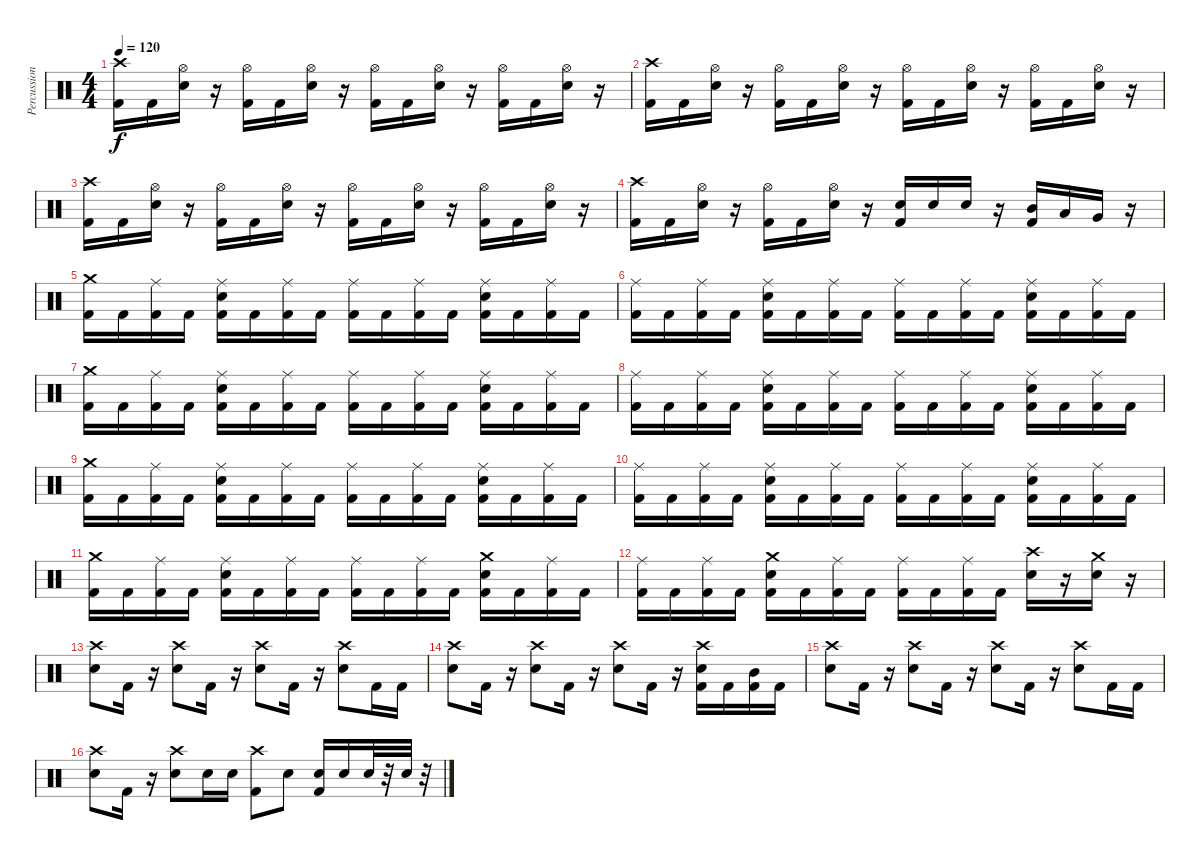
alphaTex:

\track ("Percussion" "Percussion") {instrument percussion}
\staff {score}
\articulation defaults
\ts (4 4)
\tempo 120
\clef neutral
\ks c
("Crash high (hit)" "Kick (hit) 2").16{dy f} "Kick (hit) 2".16 ("Hi-Hat (open)" "Snare (hit) 2").16 r.16 ("Hi-Hat (open)" "Kick (hit) 2").16 "Kick (hit) 2".16 ("Hi-Hat (open)" "Snare (hit) 2").16 r.16 ("Hi-Hat (open)" "Kick (hit) 2").16 "Kick (hit) 2".16 ("Hi-Hat (open)" "Snare (hit) 2").16 r.16 ("Hi-Hat (open)" "Kick (hit) 2").16 "Kick (hit) 2".16 ("Hi-Hat (open)" "Snare (hit) 2").16 r.16 |
("Crash high (hit)" "Kick (hit) 2").16 "Kick (hit) 2".16 ("Hi-Hat (open)" "Snare (hit) 2").16 r.16 ("Hi-Hat (open)" "Kick (hit) 2").16 "Kick (hit) 2".16 ("Hi-Hat (open)" "Snare (hit) 2").16 r.16 ("Hi-Hat (open)" "Kick (hit) 2").16 "Kick (hit) 2".16 ("Hi-Hat (open)" "Snare (hit) 2").16 r.16 ("Hi-Hat (open)" "Kick (hit) 2").16 "Kick (hit) 2".16 ("Hi-Hat (open)" "Snare (hit) 2").16 r.16 |
("Crash high (hit)" "Kick (hit) 2").16 "Kick (hit) 2".16 ("Hi-Hat (open)" "Snare (hit) 2").16 r.16 ("Hi-Hat (open)" "Kick (hit) 2").16 "Kick (hit) 2".16 ("Hi-Hat (open)" "Snare (hit) 2").16 r.16 ("Hi-Hat (open)" "Kick (hit) 2").16 "Kick (hit) 2".16 ("Hi-Hat (open)" "Snare (hit) 2").16 r.16 ("Hi-Hat (open)" "Kick (hit) 2").16 "Kick (hit) 2".16 ("Hi-Hat (open)" "Snare (hit) 2").16 r.16 |
("Crash high (hit)" "Kick (hit) 2").16 "Kick (hit) 2".16 ("Hi-Hat (open)" "Snare (hit) 2").16 r.16 ("Hi-Hat (open)" "Kick (hit) 2").16 "Kick (hit) 2".16 ("Hi-Hat (open)" "Snare (hit) 2").16 r.16 ("Kick (hit) 2" "Snare (hit) 2").16 "Snare (hit) 2".16 "Snare (hit) 2".16 r.16 ("Kick (hit) 2" "Mid Tom (hit)").16 "Low Tom (hit)".16 "Very Low Tom (hit)".16 r.16 |
("Crash medium (hit)" "Kick (hit) 2").16 "Kick (hit) 2".16 ("Ride (middle)" "Kick (hit) 2").16 "Kick (hit) 2".16 ("Ride (middle)" "Snare (hit) 2" "Kick (hit) 2").16 "Kick (hit) 2".16 ("Ride (middle)" "Kick (hit) 2").16 "Kick (hit) 2".16 ("Ride (middle)" "Kick (hit) 2").16 "Kick (hit) 2".16 ("Ride (middle)" "Kick (hit) 2").16 "Kick (hit) 2".16 ("Ride (middle)" "Snare (hit) 2" "Kick (hit) 2").16 "Kick (hit) 2".16 ("Ride (middle)" "Kick (hit) 2").16 "Kick (hit) 2".16 |
("Ride (middle)" "Kick (hit) 2").16 "Kick (hit) 2".16 ("Ride (middle)" "Kick (hit) 2").16 "Kick (hit) 2".16 ("Ride (middle)" "Snare (hit) 2" "Kick (hit) 2").16 "Kick (hit) 2".16 ("Ride (middle)" "Kick (hit) 2").16 "Kick (hit) 2".16 ("Ride (middle)" "Kick (hit) 2").16 "Kick (hit) 2".16 ("Ride (middle)" "Kick (hit) 2").16 "Kick (hit) 2".16 ("Ride (middle)" "Snare (hit) 2" "Kick (hit) 2").16 "Kick (hit) 2".16 ("Ride (middle)" "Kick (hit) 2").16 "Kick (hit) 2".16 |
("Crash medium (hit)" "Kick (hit) 2").16 "Kick (hit) 2".16 ("Ride (middle)" "Kick (hit) 2").16 "Kick (hit) 2".16 ("Ride (middle)" "Snare (hit) 2" "Kick (hit) 2").16 "Kick (hit) 2".16 ("Ride (middle)" "Kick (hit) 2").16 "Kick (hit) 2".16 ("Ride (middle)" "Kick (hit) 2").16 "Kick (hit) 2".16 ("Ride (middle)" "Kick (hit) 2").16 "Kick (hit) 2".16 ("Ride (middle)" "Snare (hit) 2" "Kick (hit) 2").16 "Kick (hit) 2".16 ("Ride (middle)" "Kick (hit) 2").16 "Kick (hit) 2".16 |
("Ride (middle)" "Kick (hit) 2").16 "Kick (hit) 2".16 ("Ride (middle)" "Kick (hit) 2").16 "Kick (hit) 2".16 ("Ride (middle)" "Snare (hit) 2" "Kick (hit) 2").16 "Kick (hit) 2".16 ("Ride (middle)" "Kick (hit) 2").16 "Kick (hit) 2".16 ("Ride (middle)" "Kick (hit) 2").16 "Kick (hit) 2".16 ("Ride (middle)" "Kick (hit) 2").16 "Kick (hit) 2".16 ("Ride (middle)" "Snare (hit) 2" "Kick (hit) 2").16 "Kick (hit) 2".16 ("Ride (middle)" "Kick (hit) 2").16 "Kick (hit) 2".16 |
("Crash medium (hit)" "Kick (hit) 2").16 "Kick (hit) 2".16 ("Ride (middle)" "Kick (hit) 2").16 "Kick (hit) 2".16 ("Ride (middle)" "Snare (hit) 2" "Kick (hit) 2").16 "Kick (hit) 2".16 ("Ride (middle)" "Kick (hit) 2").16 "Kick (hit) 2".16 ("Ride (middle)" "Kick (hit) 2").16 "Kick (hit) 2".16 ("Ride (middle)" "Kick (hit) 2").16 "Kick (hit) 2".16 ("Ride (middle)" "Snare (hit) 2" "Kick (hit) 2").16 "Kick (hit) 2".16 ("Ride (middle)" "Kick (hit) 2").16 "Kick (hit) 2".16 |
("Ride (middle)" "Kick (hit) 2").16 "Kick (hit) 2".16 ("Ride (middle)" "Kick (hit) 2").16 "Kick (hit) 2".16 ("Ride (middle)" "Snare (hit) 2" "Kick (hit) 2").16 "Kick (hit) 2".16 ("Ride (middle)" "Kick (hit) 2").16 "Kick (hit) 2".16 ("Ride (middle)" "Kick (hit) 2").16 "Kick (hit) 2".16 ("Ride (middle)" "Kick (hit) 2").16 "Kick (hit) 2".16 ("Ride (middle)" "Snare (hit) 2" "Kick (hit) 2").16 "Kick (hit) 2".16 ("Ride (middle)" "Kick (hit) 2").16 "Kick (hit) 2".16 |
("Crash medium (hit)" "Kick (hit) 2").16 "Kick (hit) 2".16 ("Ride (middle)" "Kick (hit) 2").16 "Kick (hit) 2".16 ("Ride (middle)" "Snare (hit) 2" "Kick (hit) 2").16 "Kick (hit) 2".16 ("Ride (middle)" "Kick (hit) 2").16 "Kick (hit) 2".16 ("Ride (middle)" "Kick (hit) 2").16 "Kick (hit) 2".16 ("Ride (middle)" "Kick (hit) 2").16 "Kick (hit) 2".16 ("Crash medium (hit)" "Snare (hit) 2" "Kick (hit) 2").16 "Kick (hit) 2".16 ("Ride (middle)" "Kick (hit) 2").16 "Kick (hit) 2".16 |
("Ride (middle)" "Kick (hit) 2").16 "Kick (hit) 2".16 ("Ride (middle)" "Kick (hit) 2").16 "Kick (hit) 2".16 ("Crash medium (hit)" "Snare (hit) 2" "Kick (hit) 2").16 "Kick (hit) 2".16 ("Ride (middle)" "Kick (hit) 2").16 "Kick (hit) 2".16 ("Ride (middle)" "Kick (hit) 2").16 "Kick (hit) 2".16 ("Ride (middle)" "Kick (hit) 2").16 "Kick (hit) 2".16 ("Crash high (hit)" "Snare (hit) 2").16 r.16 ("Crash medium (hit)" "Snare (hit) 2").16 r.16 |
("Snare (hit) 2" "Crash high (hit)").8 "Kick (hit) 2".16 r.16 ("Snare (hit) 2" "Crash high (hit)").8 "Kick (hit) 2".16 r.16 ("Snare (hit) 2" "Crash high (hit)").8 "Kick (hit) 2".16 r.16 ("Snare (hit) 2" "Crash high (hit)").8 "Kick (hit) 2".16 "Kick (hit) 2".16 |
("Snare (hit) 2" "Crash high (hit)").8 "Kick (hit) 2".16 r.16 ("Snare (hit) 2" "Crash high (hit)").8 "Kick (hit) 2".16 r.16 ("Snare (hit) 2" "Crash high (hit)").8 "Kick (hit) 2".16 r.16 ("Kick (hit) 2" "Snare (hit) 2" "Crash high (hit)").16 "Kick (hit) 2".16 ("Kick (hit) 2" "Mid Tom (hit)").16 "Kick (hit) 2".16 |
("Snare (hit) 2" "Crash high (hit)").8 "Kick (hit) 2".16 r.16 ("Snare (hit) 2" "Crash high (hit)").8 "Kick (hit) 2".16 r.16 ("Snare (hit) 2" "Crash high (hit)").8 "Kick (hit) 2".16 r.16 ("Snare (hit) 2" "Crash high (hit)").8 "Kick (hit) 2".16 "Kick (hit) 2".16 |
("Snare (hit) 2" "Crash high (hit)").8 "Kick (hit) 2".16 r.16 ("Snare (hit) 2" "Crash high (hit)").8 "Snare (hit) 2".16 "Snare (hit) 2".16 ("Crash high (hit)" "Kick (hit) 2").8 "Snare (hit) 2".8 ("Snare (hit) 2" "Kick (hit) 2").16 "Snare (hit) 2".16 "Snare (hit) 2".32 r.32 "Snare (hit) 2".32 r.32
